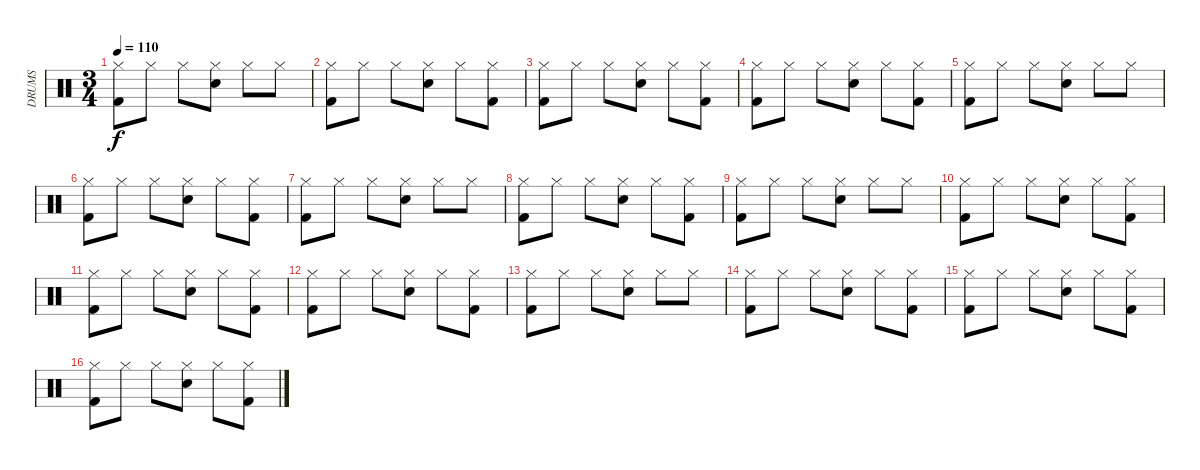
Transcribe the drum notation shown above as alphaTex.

\track ("DRUMS" "DRUMS") {instrument percussion}
\staff {score}
\articulation defaults
\ts (3 4)
\tempo 110
\clef neutral
\ks c
("Kick (hit) 2" "Hi-Hat (closed)").8{dy f} "Hi-Hat (closed)".8 "Hi-Hat (closed)".8 ("Electric Snare (hit)" "Hi-Hat (closed)").8 "Hi-Hat (closed)".8 "Hi-Hat (closed)".8 |
("Kick (hit) 2" "Hi-Hat (closed)").8 "Hi-Hat (closed)".8 "Hi-Hat (closed)".8 ("Electric Snare (hit)" "Hi-Hat (closed)").8 "Hi-Hat (closed)".8 ("Kick (hit) 2" "Hi-Hat (closed)").8 |
("Kick (hit) 2" "Hi-Hat (closed)").8 "Hi-Hat (closed)".8 "Hi-Hat (closed)".8 ("Electric Snare (hit)" "Hi-Hat (closed)").8 "Hi-Hat (closed)".8 ("Kick (hit) 2" "Hi-Hat (closed)").8 |
("Kick (hit) 2" "Hi-Hat (closed)").8 "Hi-Hat (closed)".8 "Hi-Hat (closed)".8 ("Electric Snare (hit)" "Hi-Hat (closed)").8 "Hi-Hat (closed)".8 ("Kick (hit) 2" "Hi-Hat (closed)").8 |
("Kick (hit) 2" "Hi-Hat (closed)").8 "Hi-Hat (closed)".8 "Hi-Hat (closed)".8 ("Electric Snare (hit)" "Hi-Hat (closed)").8 "Hi-Hat (closed)".8 "Hi-Hat (closed)".8 |
("Kick (hit) 2" "Hi-Hat (closed)").8 "Hi-Hat (closed)".8 "Hi-Hat (closed)".8 ("Electric Snare (hit)" "Hi-Hat (closed)").8 "Hi-Hat (closed)".8 ("Kick (hit) 2" "Hi-Hat (closed)").8 |
("Kick (hit) 2" "Hi-Hat (closed)").8 "Hi-Hat (closed)".8 "Hi-Hat (closed)".8 ("Electric Snare (hit)" "Hi-Hat (closed)").8 "Hi-Hat (closed)".8 "Hi-Hat (closed)".8 |
("Kick (hit) 2" "Hi-Hat (closed)").8 "Hi-Hat (closed)".8 "Hi-Hat (closed)".8 ("Electric Snare (hit)" "Hi-Hat (closed)").8 "Hi-Hat (closed)".8 ("Kick (hit) 2" "Hi-Hat (closed)").8 |
("Kick (hit) 2" "Hi-Hat (closed)").8 "Hi-Hat (closed)".8 "Hi-Hat (closed)".8 ("Electric Snare (hit)" "Hi-Hat (closed)").8 "Hi-Hat (closed)".8 "Hi-Hat (closed)".8 |
("Kick (hit) 2" "Hi-Hat (closed)").8 "Hi-Hat (closed)".8 "Hi-Hat (closed)".8 ("Electric Snare (hit)" "Hi-Hat (closed)").8 "Hi-Hat (closed)".8 ("Kick (hit) 2" "Hi-Hat (closed)").8 |
("Kick (hit) 2" "Hi-Hat (closed)").8 "Hi-Hat (closed)".8 "Hi-Hat (closed)".8 ("Electric Snare (hit)" "Hi-Hat (closed)").8 "Hi-Hat (closed)".8 ("Kick (hit) 2" "Hi-Hat (closed)").8 |
("Kick (hit) 2" "Hi-Hat (closed)").8 "Hi-Hat (closed)".8 "Hi-Hat (closed)".8 ("Electric Snare (hit)" "Hi-Hat (closed)").8 "Hi-Hat (closed)".8 ("Kick (hit) 2" "Hi-Hat (closed)").8 |
("Kick (hit) 2" "Hi-Hat (closed)").8 "Hi-Hat (closed)".8 "Hi-Hat (closed)".8 ("Electric Snare (hit)" "Hi-Hat (closed)").8 "Hi-Hat (closed)".8 "Hi-Hat (closed)".8 |
("Kick (hit) 2" "Hi-Hat (closed)").8 "Hi-Hat (closed)".8 "Hi-Hat (closed)".8 ("Electric Snare (hit)" "Hi-Hat (closed)").8 "Hi-Hat (closed)".8 ("Kick (hit) 2" "Hi-Hat (closed)").8 |
("Kick (hit) 2" "Hi-Hat (closed)").8 "Hi-Hat (closed)".8 "Hi-Hat (closed)".8 ("Electric Snare (hit)" "Hi-Hat (closed)").8 "Hi-Hat (closed)".8 ("Kick (hit) 2" "Hi-Hat (closed)").8 |
("Kick (hit) 2" "Hi-Hat (closed)").8 "Hi-Hat (closed)".8 "Hi-Hat (closed)".8 ("Electric Snare (hit)" "Hi-Hat (closed)").8 "Hi-Hat (closed)".8 ("Kick (hit) 2" "Hi-Hat (closed)").8
